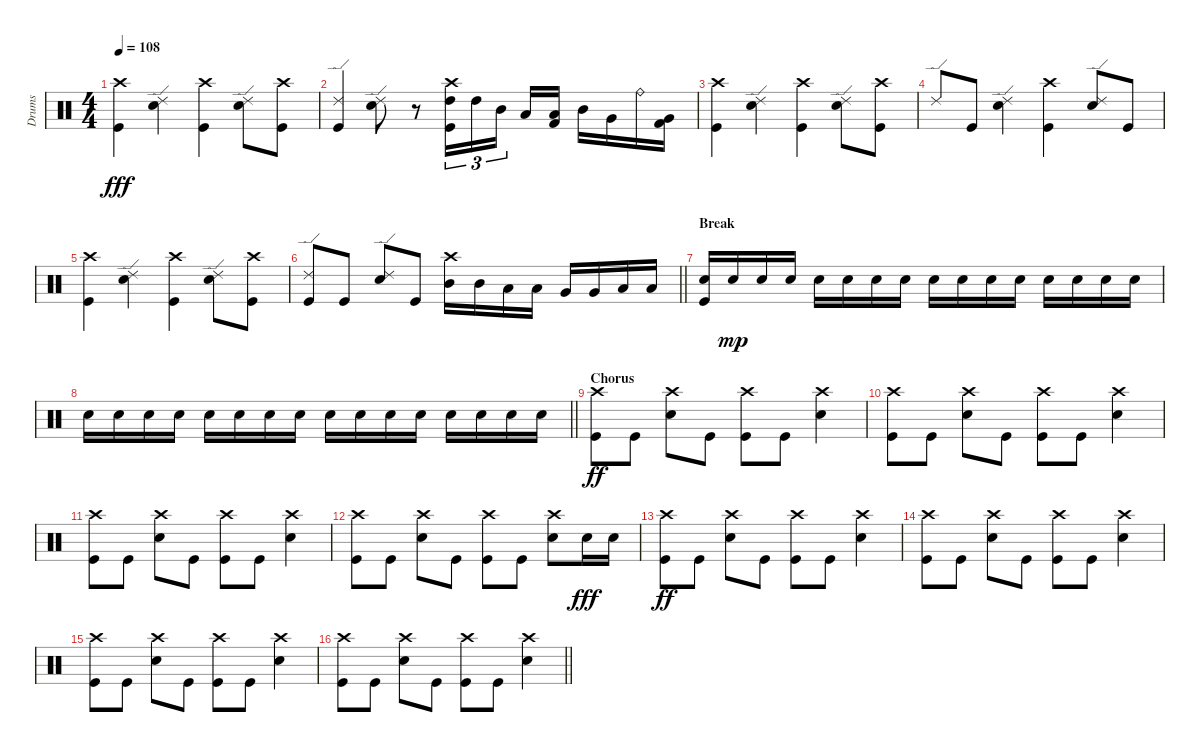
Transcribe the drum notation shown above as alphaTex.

\track ("Drums" "Drums") {instrument percussion}
\staff {score}
\articulation defaults
\ts (4 4)
\tempo 108
\clef neutral
\ks c
("Crash high (hit)" "Kick (hit)").4{dy fff} ("Ride (edge) 2" "Snare (hit) 2").4 ("Crash high (hit)" "Kick (hit)").4 ("Ride (edge) 2" "Snare (hit) 2").8 ("Crash high (hit)" "Kick (hit)").8 |
("Ride (edge) 2" "Kick (hit)").4 ("Ride (edge) 2" "Snare (hit) 2").8 r.8 ("Crash high (hit)" "High Tom (hit)" "Kick (hit)").16{tu (3 2)} "High Tom (hit)".16{tu (3 2)} "Mid Tom (hit)".16{tu (3 2) beam splitsecondary} "Low Tom (hit)".16 ("Low Tom (hit)" "Kick (hit) 2").16 "Mid Tom (hit)".16 "Very Low Tom (hit)".16 "Ride (bell)".16 ("Very Low Tom (hit)" "Kick (hit) 2").16 |
("Crash high (hit)" "Kick (hit)").4 ("Ride (edge) 2" "Snare (hit) 2").4 ("Crash high (hit)" "Kick (hit)").4 ("Ride (edge) 2" "Snare (hit) 2").8 ("Crash high (hit)" "Kick (hit)").8 |
"Ride (edge) 2".8 "Kick (hit)".8 ("Ride (edge) 2" "Snare (hit) 2").4 ("Crash high (hit)" "Kick (hit)").4 ("Ride (edge) 2" "Snare (hit) 2").8 "Kick (hit)".8 |
("Crash high (hit)" "Kick (hit)").4 ("Ride (edge) 2" "Snare (hit) 2").4 ("Crash high (hit)" "Kick (hit)").4 ("Ride (edge) 2" "Snare (hit) 2").8 ("Crash high (hit)" "Kick (hit)").8 |
\barLineRight lightlight
("Ride (edge) 2" "Kick (hit)").8 "Kick (hit)".8 ("Ride (edge) 2" "Snare (hit) 2").8 "Kick (hit)".8 ("Crash high (hit)" "Mid Tom (hit)").16 "Mid Tom (hit)".16 "Low Tom (hit)".16 "Low Tom (hit)".16 "Very Low Tom (hit)".16 "Very Low Tom (hit)".16 "Low Floor Tom (hit)".16 "Low Floor Tom (hit)".16 |
\section ("" "Break")
("Snare (hit) 2" "Kick (hit)").16{volume 3} "Snare (hit) 2".16{dy mp} "Snare (hit) 2".16 "Snare (hit) 2".16 "Snare (hit) 2".16{volume 7} "Snare (hit) 2".16 "Snare (hit) 2".16 "Snare (hit) 2".16 "Snare (hit) 2".16 "Snare (hit) 2".16 "Snare (hit) 2".16 "Snare (hit) 2".16 "Snare (hit) 2".16 "Snare (hit) 2".16 "Snare (hit) 2".16 "Snare (hit) 2".16 |
\barLineRight lightlight "Snare (hit) 2".16 "Snare (hit) 2".16 "Snare (hit) 2".16 "Snare (hit) 2".16 "Snare (hit) 2".16 "Snare (hit) 2".16 "Snare (hit) 2".16 "Snare (hit) 2".16 "Snare (hit) 2".16 "Snare (hit) 2".16 "Snare (hit) 2".16 "Snare (hit) 2".16 "Snare (hit) 2".16 "Snare (hit) 2".16 "Snare (hit) 2".16 "Snare (hit) 2".16
|
\section ("" "Chorus")
("Crash high (hit)" "Kick (hit)").8{dy ff volume 16} "Kick (hit)".8 ("Crash high (hit)" "Snare (hit) 2").8 "Kick (hit)".8 ("Crash high (hit)" "Kick (hit)").8 "Kick (hit)".8 ("Crash high (hit)" "Snare (hit) 2").4 |
("Crash high (hit)" "Kick (hit)").8 "Kick (hit)".8 ("Crash high (hit)" "Snare (hit) 2").8 "Kick (hit)".8 ("Crash high (hit)" "Kick (hit)").8 "Kick (hit)".8 ("Crash high (hit)" "Snare (hit) 2").4 |
("Crash high (hit)" "Kick (hit)").8 "Kick (hit)".8 ("Crash high (hit)" "Snare (hit) 2").8 "Kick (hit)".8 ("Crash high (hit)" "Kick (hit)").8 "Kick (hit)".8 ("Crash high (hit)" "Snare (hit) 2").4 |
("Crash high (hit)" "Kick (hit)").8 "Kick (hit)".8 ("Crash high (hit)" "Snare (hit) 2").8 "Kick (hit)".8 ("Crash high (hit)" "Kick (hit)").8 "Kick (hit)".8 ("Crash high (hit)" "Snare (hit) 2").8 "Snare (hit) 2".16{dy fff} "Snare (hit) 2".16 |
("Crash high (hit)" "Kick (hit)").8{dy ff} "Kick (hit)".8 ("Crash high (hit)" "Snare (hit) 2").8 "Kick (hit)".8 ("Crash high (hit)" "Kick (hit)").8 "Kick (hit)".8 ("Crash high (hit)" "Snare (hit) 2").4 |
("Crash high (hit)" "Kick (hit)").8 "Kick (hit)".8 ("Crash high (hit)" "Snare (hit) 2").8 "Kick (hit)".8 ("Crash high (hit)" "Kick (hit)").8 "Kick (hit)".8 ("Crash high (hit)" "Snare (hit) 2").4 |
("Crash high (hit)" "Kick (hit)").8 "Kick (hit)".8 ("Crash high (hit)" "Snare (hit) 2").8 "Kick (hit)".8 ("Crash high (hit)" "Kick (hit)").8 "Kick (hit)".8 ("Crash high (hit)" "Snare (hit) 2").4 |
\barLineRight lightlight
("Crash high (hit)" "Kick (hit)").8 "Kick (hit)".8 ("Crash high (hit)" "Snare (hit) 2").8 "Kick (hit)".8 ("Crash high (hit)" "Kick (hit)").8 "Kick (hit)".8 ("Crash high (hit)" "Snare (hit) 2").4
